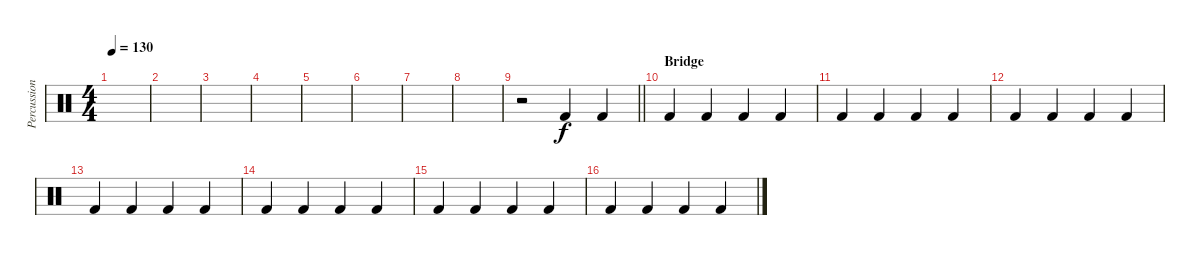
\track ("Percussion" "Percussion") {instrument percussion}
\staff {score}
\articulation defaults
\ts (4 4)
\tempo 130
\clef neutral
\ks c
|
|
|
|
|
|
|
|
\barLineRight lightlight
r.2 "Kick (hit) 2".4 "Kick (hit) 2".4 |
\section ("" "Bridge")
"Kick (hit) 2".4 "Kick (hit) 2".4 "Kick (hit) 2".4 "Kick (hit) 2".4 |
"Kick (hit) 2".4 "Kick (hit) 2".4 "Kick (hit) 2".4 "Kick (hit) 2".4 |
"Kick (hit) 2".4 "Kick (hit) 2".4 "Kick (hit) 2".4 "Kick (hit) 2".4 |
"Kick (hit) 2".4 "Kick (hit) 2".4 "Kick (hit) 2".4 "Kick (hit) 2".4 |
"Kick (hit) 2".4 "Kick (hit) 2".4 "Kick (hit) 2".4 "Kick (hit) 2".4 |
"Kick (hit) 2".4 "Kick (hit) 2".4 "Kick (hit) 2".4 "Kick (hit) 2".4 |
"Kick (hit) 2".4 "Kick (hit) 2".4 "Kick (hit) 2".4 "Kick (hit) 2".4
